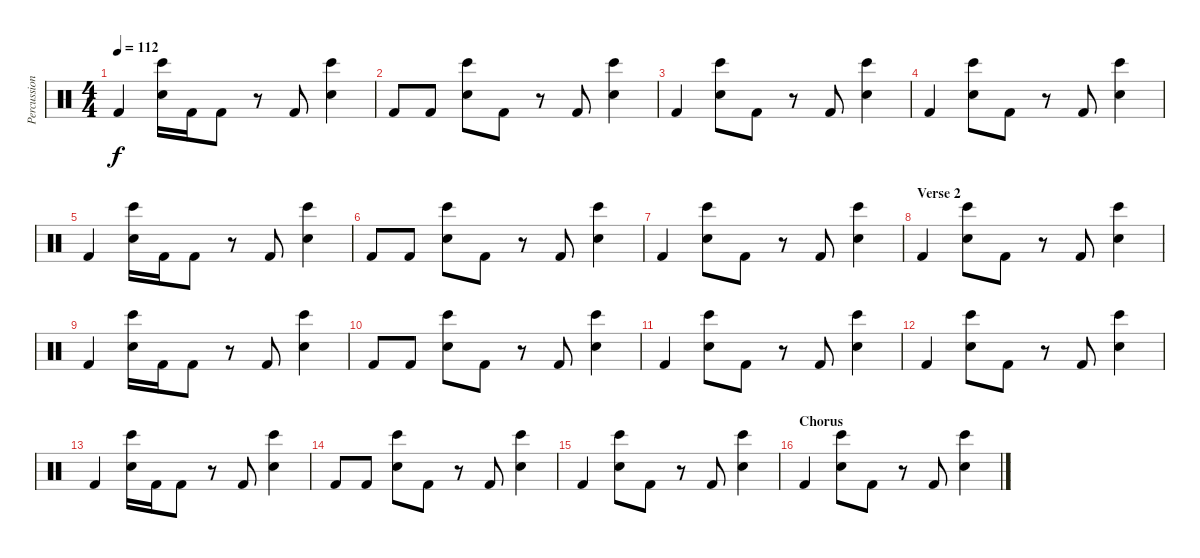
\track ("Percussion" "Percussion") {instrument percussion}
\staff {score}
\articulation defaults
\ts (4 4)
\tempo 112
\clef neutral
\ks c "Kick (hit) 2".4{dy f}
("Bongo High (hit)" "Hand Clap (hit)").16 "Kick (hit) 2".16 "Kick (hit) 2".8 r.8 "Kick (hit) 2".8 ("Bongo High (hit)" "Hand Clap (hit)").4 |
"Kick (hit) 2".8 "Kick (hit) 2".8 ("Bongo High (hit)" "Hand Clap (hit)").8 "Kick (hit) 2".8 r.8 "Kick (hit) 2".8 ("Bongo High (hit)" "Hand Clap (hit)").4 |
"Kick (hit) 2".4 ("Bongo High (hit)" "Hand Clap (hit)").8 "Kick (hit) 2".8 r.8 "Kick (hit) 2".8 ("Bongo High (hit)" "Hand Clap (hit)").4 |
"Kick (hit) 2".4 ("Bongo High (hit)" "Hand Clap (hit)").8 "Kick (hit) 2".8 r.8 "Kick (hit) 2".8 ("Bongo High (hit)" "Hand Clap (hit)").4 |
"Kick (hit) 2".4 ("Bongo High (hit)" "Hand Clap (hit)").16 "Kick (hit) 2".16 "Kick (hit) 2".8 r.8 "Kick (hit) 2".8 ("Bongo High (hit)" "Hand Clap (hit)").4 |
"Kick (hit) 2".8 "Kick (hit) 2".8 ("Bongo High (hit)" "Hand Clap (hit)").8 "Kick (hit) 2".8 r.8 "Kick (hit) 2".8 ("Bongo High (hit)" "Hand Clap (hit)").4 |
"Kick (hit) 2".4 ("Bongo High (hit)" "Hand Clap (hit)").8 "Kick (hit) 2".8 r.8 "Kick (hit) 2".8 ("Bongo High (hit)" "Hand Clap (hit)").4 |
\section ("" "Verse 2")
"Kick (hit) 2".4 ("Bongo High (hit)" "Hand Clap (hit)").8 "Kick (hit) 2".8 r.8 "Kick (hit) 2".8 ("Bongo High (hit)" "Hand Clap (hit)").4 |
"Kick (hit) 2".4 ("Bongo High (hit)" "Hand Clap (hit)").16 "Kick (hit) 2".16 "Kick (hit) 2".8 r.8 "Kick (hit) 2".8 ("Bongo High (hit)" "Hand Clap (hit)").4 |
"Kick (hit) 2".8 "Kick (hit) 2".8 ("Bongo High (hit)" "Hand Clap (hit)").8 "Kick (hit) 2".8 r.8 "Kick (hit) 2".8 ("Bongo High (hit)" "Hand Clap (hit)").4 |
"Kick (hit) 2".4 ("Bongo High (hit)" "Hand Clap (hit)").8 "Kick (hit) 2".8 r.8 "Kick (hit) 2".8 ("Bongo High (hit)" "Hand Clap (hit)").4 |
"Kick (hit) 2".4 ("Bongo High (hit)" "Hand Clap (hit)").8 "Kick (hit) 2".8 r.8 "Kick (hit) 2".8 ("Bongo High (hit)" "Hand Clap (hit)").4 |
"Kick (hit) 2".4 ("Bongo High (hit)" "Hand Clap (hit)").16 "Kick (hit) 2".16 "Kick (hit) 2".8 r.8 "Kick (hit) 2".8 ("Bongo High (hit)" "Hand Clap (hit)").4 |
"Kick (hit) 2".8 "Kick (hit) 2".8 ("Bongo High (hit)" "Hand Clap (hit)").8 "Kick (hit) 2".8 r.8 "Kick (hit) 2".8 ("Bongo High (hit)" "Hand Clap (hit)").4 |
"Kick (hit) 2".4 ("Bongo High (hit)" "Hand Clap (hit)").8 "Kick (hit) 2".8 r.8 "Kick (hit) 2".8 ("Bongo High (hit)" "Hand Clap (hit)").4 |
\section ("" "Chorus")
"Kick (hit) 2".4 ("Bongo High (hit)" "Hand Clap (hit)").8 "Kick (hit) 2".8 r.8 "Kick (hit) 2".8 ("Bongo High (hit)" "Hand Clap (hit)").4
